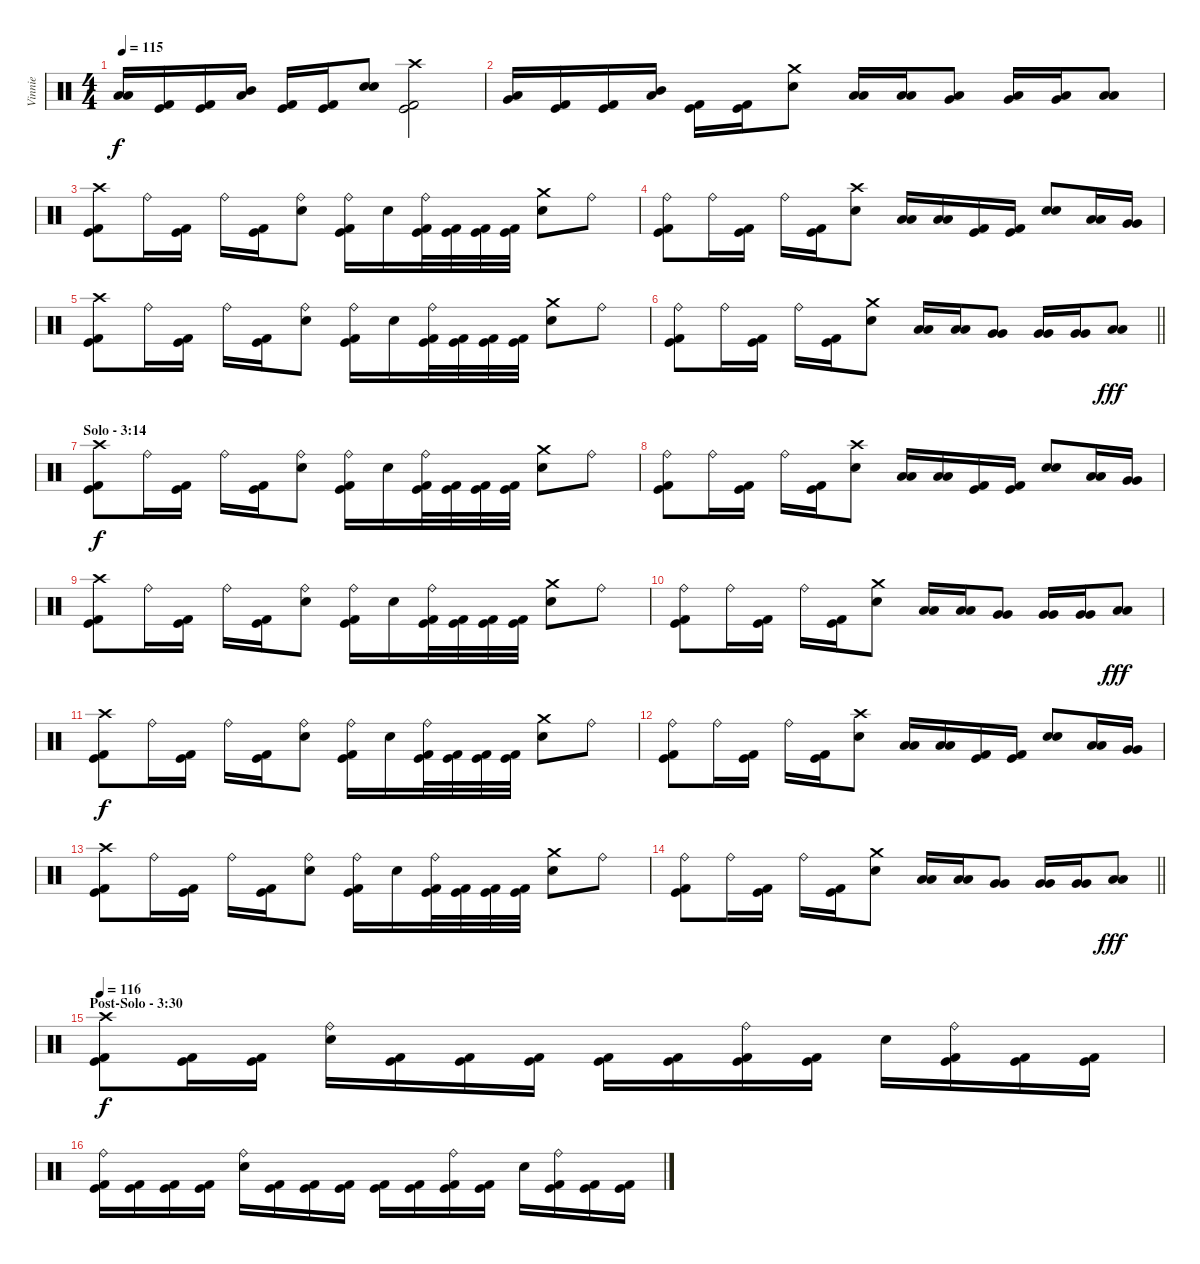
\track ("Vinnie" "Vinnie") {instrument percussion}
\staff {score}
\articulation defaults
\ts (4 4)
\tempo 115
\clef neutral
\ks c
("Low Tom (hit)" "Low Tom (hit)").16{dy f} ("Kick (hit)" "Kick (hit) 2").16 ("Kick (hit)" "Kick (hit) 2").16 ("Mid Tom (hit)" "Low Tom (hit)").16{bd 480} ("Kick (hit)" "Kick (hit) 2").16 ("Kick (hit)" "Kick (hit) 2").16 ("Electric Snare (hit)" "Electric Snare (hit)").8{bd 480} ("Crash high (hit)" "Kick (hit)" "Kick (hit) 2").2 |
("Low Tom (hit)" "Very Low Tom (hit)").16{bd 480} ("Kick (hit)" "Kick (hit) 2").16 ("Kick (hit)" "Kick (hit) 2").16 ("Mid Tom (hit)" "Low Tom (hit)").16{bd 480} ("Kick (hit)" "Kick (hit) 2").16 ("Kick (hit)" "Kick (hit) 2").16 ("Crash medium (hit)" "Electric Snare (hit)").8 ("Low Tom (hit)" "Low Tom (hit)").16{bd 480} ("Low Tom (hit)" "Low Tom (hit)").16 ("Very Low Tom (hit)" "Low Tom (hit)").8 ("Very Low Tom (hit)" "Low Tom (hit)").16{bd 480} ("Very Low Tom (hit)" "Low Tom (hit)").16 ("Low Floor Tom (hit)" "Low Floor Tom (hit)").8 |
("Crash high (hit)" "Kick (hit)" "Kick (hit) 2").8 "Ride (bell)".16 ("Kick (hit)" "Kick (hit) 2").16 "Ride (bell)".16 ("Kick (hit)" "Kick (hit) 2").16 ("Ride (bell)" "Electric Snare (hit)").8 ("Ride (bell)" "Kick (hit)" "Kick (hit) 2").16 "Electric Snare (hit)".16 ("Ride (bell)" "Kick (hit)" "Kick (hit) 2").32 ("Kick (hit)" "Kick (hit) 2").32 ("Kick (hit)" "Kick (hit) 2").32 ("Kick (hit)" "Kick (hit) 2").32 ("Crash medium (hit)" "Electric Snare (hit)").8 "Ride (bell)".8 |
("Ride (bell)" "Kick (hit)" "Kick (hit) 2").8 "Ride (bell)".16 ("Kick (hit)" "Kick (hit) 2").16 "Ride (bell)".16 ("Kick (hit)" "Kick (hit) 2").16 ("Crash high (hit)" "Electric Snare (hit)").8 ("Low Tom (hit)" "Low Tom (hit)").16 ("Low Tom (hit)" "Low Tom (hit)").16 ("Kick (hit)" "Kick (hit) 2").16 ("Kick (hit)" "Kick (hit) 2").16 ("Electric Snare (hit)" "Electric Snare (hit)").8{bd 480} ("Low Tom (hit)" "Low Tom (hit)").16 ("Very Low Tom (hit)" "Very Low Tom (hit)").16 |
("Crash high (hit)" "Kick (hit)" "Kick (hit) 2").8 "Ride (bell)".16 ("Kick (hit)" "Kick (hit) 2").16 "Ride (bell)".16 ("Kick (hit)" "Kick (hit) 2").16 ("Ride (bell)" "Electric Snare (hit)").8 ("Ride (bell)" "Kick (hit)" "Kick (hit) 2").16 "Electric Snare (hit)".16 ("Ride (bell)" "Kick (hit)" "Kick (hit) 2").32 ("Kick (hit)" "Kick (hit) 2").32 ("Kick (hit)" "Kick (hit) 2").32 ("Kick (hit)" "Kick (hit) 2").32 ("Crash medium (hit)" "Electric Snare (hit)").8 "Ride (bell)".8 |
\barLineRight lightlight
("Ride (bell)" "Kick (hit)" "Kick (hit) 2").8 "Ride (bell)".16 ("Kick (hit)" "Kick (hit) 2").16 "Ride (bell)".16 ("Kick (hit)" "Kick (hit) 2").16 ("Crash medium (hit)" "Electric Snare (hit)").8 ("Low Tom (hit)" "Low Tom (hit)").16{bd 480} ("Low Tom (hit)" "Low Tom (hit)").16 ("Very Low Tom (hit)" "Very Low Tom (hit)").8 ("Very Low Tom (hit)" "Very Low Tom (hit)").16{bd 480} ("Very Low Tom (hit)" "Very Low Tom (hit)").16 ("Low Floor Tom (hit)" "Low Floor Tom (hit)").8{dy fff} |
\section ("" "Solo - 3:14")
("Crash high (hit)" "Kick (hit)" "Kick (hit) 2").8{dy f} "Ride (bell)".16 ("Kick (hit)" "Kick (hit) 2").16 "Ride (bell)".16 ("Kick (hit)" "Kick (hit) 2").16 ("Ride (bell)" "Electric Snare (hit)").8 ("Ride (bell)" "Kick (hit)" "Kick (hit) 2").16 "Electric Snare (hit)".16 ("Ride (bell)" "Kick (hit)" "Kick (hit) 2").32 ("Kick (hit)" "Kick (hit) 2").32 ("Kick (hit)" "Kick (hit) 2").32 ("Kick (hit)" "Kick (hit) 2").32 ("Crash medium (hit)" "Electric Snare (hit)").8 "Ride (bell)".8 |
("Ride (bell)" "Kick (hit)" "Kick (hit) 2").8 "Ride (bell)".16 ("Kick (hit)" "Kick (hit) 2").16 "Ride (bell)".16 ("Kick (hit)" "Kick (hit) 2").16 ("Crash high (hit)" "Electric Snare (hit)").8 ("Low Tom (hit)" "Low Tom (hit)").16 ("Low Tom (hit)" "Low Tom (hit)").16 ("Kick (hit)" "Kick (hit) 2").16 ("Kick (hit)" "Kick (hit) 2").16 ("Electric Snare (hit)" "Electric Snare (hit)").8{bd 480} ("Low Tom (hit)" "Low Tom (hit)").16 ("Very Low Tom (hit)" "Very Low Tom (hit)").16 |
("Crash high (hit)" "Kick (hit)" "Kick (hit) 2").8 "Ride (bell)".16 ("Kick (hit)" "Kick (hit) 2").16 "Ride (bell)".16 ("Kick (hit)" "Kick (hit) 2").16 ("Ride (bell)" "Electric Snare (hit)").8 ("Ride (bell)" "Kick (hit)" "Kick (hit) 2").16 "Electric Snare (hit)".16 ("Ride (bell)" "Kick (hit)" "Kick (hit) 2").32 ("Kick (hit)" "Kick (hit) 2").32 ("Kick (hit)" "Kick (hit) 2").32 ("Kick (hit)" "Kick (hit) 2").32 ("Crash medium (hit)" "Electric Snare (hit)").8 "Ride (bell)".8 |
("Ride (bell)" "Kick (hit)" "Kick (hit) 2").8 "Ride (bell)".16 ("Kick (hit)" "Kick (hit) 2").16 "Ride (bell)".16 ("Kick (hit)" "Kick (hit) 2").16 ("Crash medium (hit)" "Electric Snare (hit)").8 ("Low Tom (hit)" "Low Tom (hit)").16{bd 480} ("Low Tom (hit)" "Low Tom (hit)").16 ("Very Low Tom (hit)" "Very Low Tom (hit)").8 ("Very Low Tom (hit)" "Very Low Tom (hit)").16{bd 480} ("Very Low Tom (hit)" "Very Low Tom (hit)").16 ("Low Floor Tom (hit)" "Low Floor Tom (hit)").8{dy fff} |
("Crash high (hit)" "Kick (hit)" "Kick (hit) 2").8{dy f} "Ride (bell)".16 ("Kick (hit)" "Kick (hit) 2").16 "Ride (bell)".16 ("Kick (hit)" "Kick (hit) 2").16 ("Ride (bell)" "Electric Snare (hit)").8 ("Ride (bell)" "Kick (hit)" "Kick (hit) 2").16 "Electric Snare (hit)".16 ("Ride (bell)" "Kick (hit)" "Kick (hit) 2").32 ("Kick (hit)" "Kick (hit) 2").32 ("Kick (hit)" "Kick (hit) 2").32 ("Kick (hit)" "Kick (hit) 2").32 ("Crash medium (hit)" "Electric Snare (hit)").8 "Ride (bell)".8 |
("Ride (bell)" "Kick (hit)" "Kick (hit) 2").8 "Ride (bell)".16 ("Kick (hit)" "Kick (hit) 2").16 "Ride (bell)".16 ("Kick (hit)" "Kick (hit) 2").16 ("Crash high (hit)" "Electric Snare (hit)").8 ("Low Tom (hit)" "Low Tom (hit)").16 ("Low Tom (hit)" "Low Tom (hit)").16 ("Kick (hit)" "Kick (hit) 2").16 ("Kick (hit)" "Kick (hit) 2").16 ("Electric Snare (hit)" "Electric Snare (hit)").8{bd 480} ("Low Tom (hit)" "Low Tom (hit)").16 ("Very Low Tom (hit)" "Very Low Tom (hit)").16 |
("Crash high (hit)" "Kick (hit)" "Kick (hit) 2").8 "Ride (bell)".16 ("Kick (hit)" "Kick (hit) 2").16 "Ride (bell)".16 ("Kick (hit)" "Kick (hit) 2").16 ("Ride (bell)" "Electric Snare (hit)").8 ("Ride (bell)" "Kick (hit)" "Kick (hit) 2").16 "Electric Snare (hit)".16 ("Ride (bell)" "Kick (hit)" "Kick (hit) 2").32 ("Kick (hit)" "Kick (hit) 2").32 ("Kick (hit)" "Kick (hit) 2").32 ("Kick (hit)" "Kick (hit) 2").32 ("Crash medium (hit)" "Electric Snare (hit)").8 "Ride (bell)".8 |
\barLineRight lightlight
("Ride (bell)" "Kick (hit)" "Kick (hit) 2").8 "Ride (bell)".16 ("Kick (hit)" "Kick (hit) 2").16 "Ride (bell)".16 ("Kick (hit)" "Kick (hit) 2").16 ("Crash medium (hit)" "Electric Snare (hit)").8 ("Low Tom (hit)" "Low Tom (hit)").16{bd 480} ("Low Tom (hit)" "Low Tom (hit)").16 ("Very Low Tom (hit)" "Very Low Tom (hit)").8 ("Very Low Tom (hit)" "Very Low Tom (hit)").16{bd 480} ("Very Low Tom (hit)" "Very Low Tom (hit)").16 ("Low Floor Tom (hit)" "Low Floor Tom (hit)").8{dy fff} |
\section ("" "Post-Solo - 3:30")
\tempo 116
("Crash high (hit)" "Kick (hit)" "Kick (hit) 2").8{dy f volume 16} ("Kick (hit)" "Kick (hit) 2").16 ("Kick (hit)" "Kick (hit) 2").16 ("Ride (bell)" "Electric Snare (hit)").16 ("Kick (hit)" "Kick (hit) 2").16 ("Kick (hit)" "Kick (hit) 2").16 ("Kick (hit)" "Kick (hit) 2").16 ("Kick (hit)" "Kick (hit) 2").16 ("Kick (hit)" "Kick (hit) 2").16 ("Ride (bell)" "Kick (hit)" "Kick (hit) 2").16 ("Kick (hit)" "Kick (hit) 2").16 "Electric Snare (hit)".16 ("Ride (bell)" "Kick (hit)" "Kick (hit) 2").16 ("Kick (hit)" "Kick (hit) 2").16 ("Kick (hit)" "Kick (hit) 2").16 |
("Ride (bell)" "Kick (hit)" "Kick (hit) 2").16 ("Kick (hit)" "Kick (hit) 2").16 ("Kick (hit)" "Kick (hit) 2").16 ("Kick (hit)" "Kick (hit) 2").16 ("Ride (bell)" "Electric Snare (hit)").16 ("Kick (hit)" "Kick (hit) 2").16 ("Kick (hit)" "Kick (hit) 2").16 ("Kick (hit)" "Kick (hit) 2").16 ("Kick (hit)" "Kick (hit) 2").16 ("Kick (hit)" "Kick (hit) 2").16 ("Ride (bell)" "Kick (hit)" "Kick (hit) 2").16 ("Kick (hit)" "Kick (hit) 2").16 "Electric Snare (hit)".16 ("Ride (bell)" "Kick (hit)" "Kick (hit) 2").16 ("Kick (hit)" "Kick (hit) 2").16 ("Kick (hit)" "Kick (hit) 2").16
